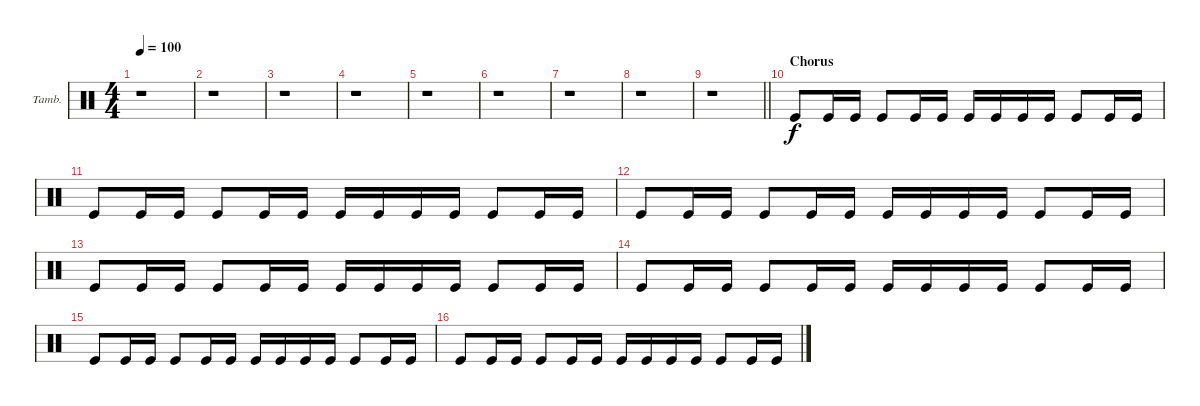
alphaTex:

\bracketExtendMode groupsimilarinstruments
\firstSystemTrackNameOrientation horizontal
\otherSystemsTrackNameOrientation horizontal
\track ("Tambourine" "Tamb.") {instrument percussion}
\staff {score}
\articulation defaults
\ts (4 4)
\tempo 100
\clef neutral
\ks c
r.1{dy f} |
r.1 |
r.1 |
r.1 |
r.1 |
r.1 |
r.1 |
r.1 |
\barLineRight lightlight
r.1 |
\section ("" "Chorus")
"Kick (hit)".8 "Kick (hit)".16 "Kick (hit)".16 "Kick (hit)".8 "Kick (hit)".16 "Kick (hit)".16 "Kick (hit)".16 "Kick (hit)".16 "Kick (hit)".16 "Kick (hit)".16 "Kick (hit)".8 "Kick (hit)".16 "Kick (hit)".16 |
"Kick (hit)".8 "Kick (hit)".16 "Kick (hit)".16 "Kick (hit)".8 "Kick (hit)".16 "Kick (hit)".16 "Kick (hit)".16 "Kick (hit)".16 "Kick (hit)".16 "Kick (hit)".16 "Kick (hit)".8 "Kick (hit)".16 "Kick (hit)".16 |
"Kick (hit)".8 "Kick (hit)".16 "Kick (hit)".16 "Kick (hit)".8 "Kick (hit)".16 "Kick (hit)".16 "Kick (hit)".16 "Kick (hit)".16 "Kick (hit)".16 "Kick (hit)".16 "Kick (hit)".8 "Kick (hit)".16 "Kick (hit)".16 |
"Kick (hit)".8 "Kick (hit)".16 "Kick (hit)".16 "Kick (hit)".8 "Kick (hit)".16 "Kick (hit)".16 "Kick (hit)".16 "Kick (hit)".16 "Kick (hit)".16 "Kick (hit)".16 "Kick (hit)".8 "Kick (hit)".16 "Kick (hit)".16 |
"Kick (hit)".8 "Kick (hit)".16 "Kick (hit)".16 "Kick (hit)".8 "Kick (hit)".16 "Kick (hit)".16 "Kick (hit)".16 "Kick (hit)".16 "Kick (hit)".16 "Kick (hit)".16 "Kick (hit)".8 "Kick (hit)".16 "Kick (hit)".16 |
"Kick (hit)".8 "Kick (hit)".16 "Kick (hit)".16 "Kick (hit)".8 "Kick (hit)".16 "Kick (hit)".16 "Kick (hit)".16 "Kick (hit)".16 "Kick (hit)".16 "Kick (hit)".16 "Kick (hit)".8 "Kick (hit)".16 "Kick (hit)".16 |
"Kick (hit)".8 "Kick (hit)".16 "Kick (hit)".16 "Kick (hit)".8 "Kick (hit)".16 "Kick (hit)".16 "Kick (hit)".16 "Kick (hit)".16 "Kick (hit)".16 "Kick (hit)".16 "Kick (hit)".8 "Kick (hit)".16 "Kick (hit)".16
